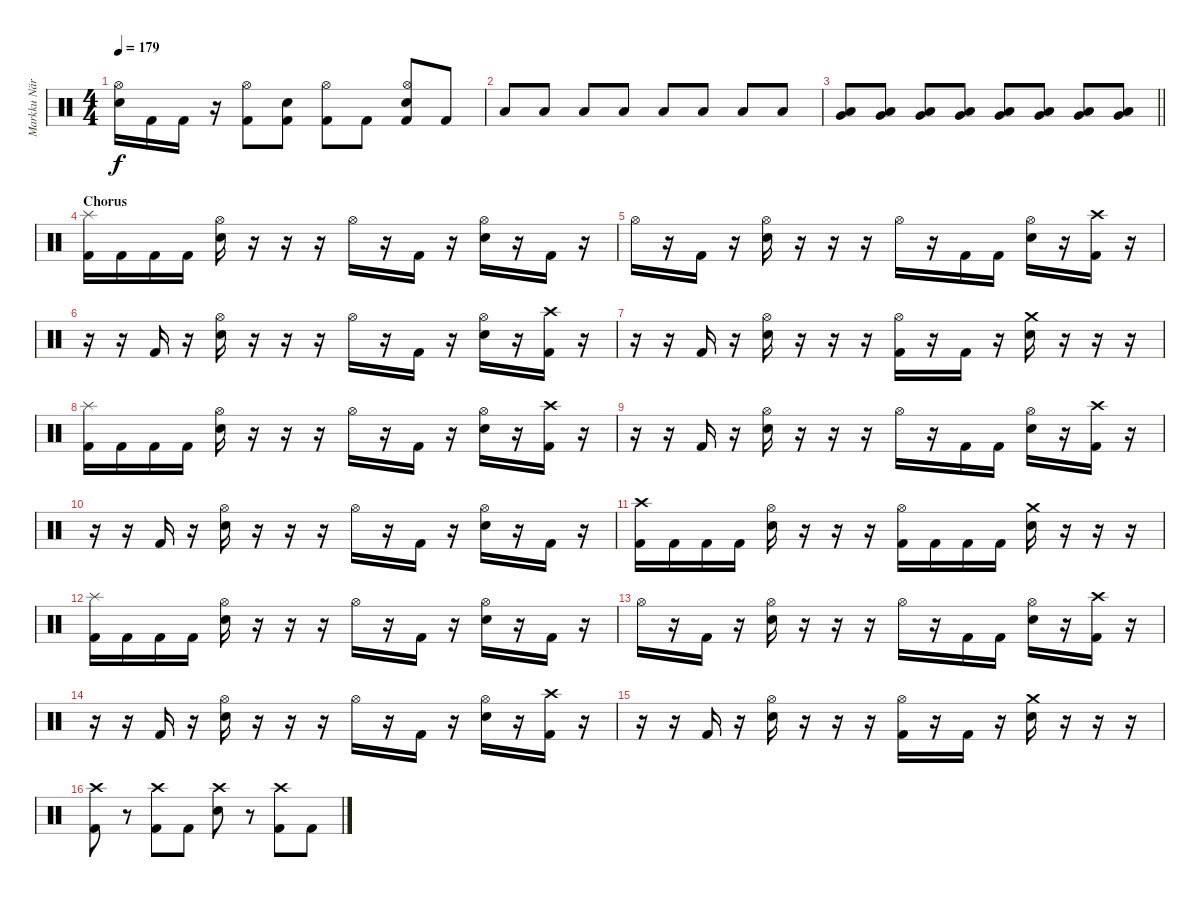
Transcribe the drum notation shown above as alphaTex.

\track ("Markku Näreneva (Drums)" "Markku När") {instrument percussion}
\staff {score}
\articulation defaults
\ts (4 4)
\tempo 179
\clef neutral
\ks c
("Snare (hit) 2" "Hi-Hat (open)").16{dy f} "Kick (hit) 2".16 "Kick (hit) 2".16 r.16 ("Kick (hit) 2" "Hi-Hat (open)").8 ("Kick (hit) 2" "Snare (hit) 2").8 ("Kick (hit) 2" "Hi-Hat (open)").8 "Kick (hit) 2".8 ("Kick (hit) 2" "Snare (hit) 2" "Hi-Hat (open)").8 "Kick (hit) 2".8 |
"Low Tom (hit)".8 "Low Tom (hit)".8 "Low Tom (hit)".8 "Low Tom (hit)".8 "Low Tom (hit)".8 "Low Tom (hit)".8 "Low Tom (hit)".8 "Low Tom (hit)".8 |
\barLineRight lightlight
("Low Tom (hit)" "Very Low Tom (hit)").8 ("Low Tom (hit)" "Very Low Tom (hit)").8 ("Low Tom (hit)" "Very Low Tom (hit)").8 ("Low Tom (hit)" "Very Low Tom (hit)").8 ("Low Tom (hit)" "Very Low Tom (hit)").8 ("Low Tom (hit)" "Very Low Tom (hit)").8 ("Low Tom (hit)" "Very Low Tom (hit)").8 ("Low Tom (hit)" "Very Low Tom (hit)").8 |
\section ("" "Chorus")
("Kick (hit) 2" "Splash (hit)").16 "Kick (hit) 2".16 "Kick (hit) 2".16 "Kick (hit) 2".16 ("Snare (hit) 2" "Hi-Hat (open)").16 r.16 r.16 r.16 "Hi-Hat (open)".16 r.16 "Kick (hit) 2".16 r.16 ("Snare (hit) 2" "Hi-Hat (open)").16 r.16 "Kick (hit) 2".16 r.16 |
"Hi-Hat (open)".16 r.16 "Kick (hit) 2".16 r.16 ("Snare (hit) 2" "Hi-Hat (open)").16 r.16 r.16 r.16 "Hi-Hat (open)".16 r.16 "Kick (hit) 2".16 "Kick (hit) 2".16 ("Snare (hit) 2" "Hi-Hat (open)").16 r.16 ("Kick (hit) 2" "Crash high (hit)").16 r.16 |
r.16 r.16 "Kick (hit) 2".16 r.16 ("Snare (hit) 2" "Hi-Hat (open)").16 r.16 r.16 r.16 "Hi-Hat (open)".16 r.16 "Kick (hit) 2".16 r.16 ("Snare (hit) 2" "Hi-Hat (open)").16 r.16 ("Kick (hit) 2" "Crash high (hit)").16 r.16 |
r.16 r.16 "Kick (hit) 2".16 r.16 ("Snare (hit) 2" "Hi-Hat (open)").16 r.16 r.16 r.16 ("Kick (hit) 2" "Hi-Hat (open)").16 r.16 "Kick (hit) 2".16 r.16 ("Snare (hit) 2" "Crash medium (hit)").16 r.16 r.16 r.16 |
("Kick (hit) 2" "Splash (hit)").16 "Kick (hit) 2".16 "Kick (hit) 2".16 "Kick (hit) 2".16 ("Snare (hit) 2" "Hi-Hat (open)").16 r.16 r.16 r.16 "Hi-Hat (open)".16 r.16 "Kick (hit) 2".16 r.16 ("Snare (hit) 2" "Hi-Hat (open)").16 r.16 ("Kick (hit) 2" "Crash high (hit)").16 r.16 |
r.16 r.16 "Kick (hit) 2".16 r.16 ("Snare (hit) 2" "Hi-Hat (open)").16 r.16 r.16 r.16 "Hi-Hat (open)".16 r.16 "Kick (hit) 2".16 "Kick (hit) 2".16 ("Snare (hit) 2" "Hi-Hat (open)").16 r.16 ("Kick (hit) 2" "Crash high (hit)").16 r.16 |
r.16 r.16 "Kick (hit) 2".16 r.16 ("Snare (hit) 2" "Hi-Hat (open)").16 r.16 r.16 r.16 "Hi-Hat (open)".16 r.16 "Kick (hit) 2".16 r.16 ("Snare (hit) 2" "Hi-Hat (open)").16 r.16 "Kick (hit) 2".16 r.16 |
("Kick (hit) 2" "Crash high (hit)").16 "Kick (hit) 2".16 "Kick (hit) 2".16 "Kick (hit) 2".16 ("Snare (hit) 2" "Hi-Hat (open)").16 r.16 r.16 r.16 ("Kick (hit) 2" "Hi-Hat (open)").16 "Kick (hit) 2".16 "Kick (hit) 2".16 "Kick (hit) 2".16 ("Snare (hit) 2" "Crash medium (hit)").16 r.16 r.16 r.16 |
("Kick (hit) 2" "Splash (hit)").16 "Kick (hit) 2".16 "Kick (hit) 2".16 "Kick (hit) 2".16 ("Snare (hit) 2" "Hi-Hat (open)").16 r.16 r.16 r.16 "Hi-Hat (open)".16 r.16 "Kick (hit) 2".16 r.16 ("Snare (hit) 2" "Hi-Hat (open)").16 r.16 "Kick (hit) 2".16 r.16 |
"Hi-Hat (open)".16 r.16 "Kick (hit) 2".16 r.16 ("Snare (hit) 2" "Hi-Hat (open)").16 r.16 r.16 r.16 "Hi-Hat (open)".16 r.16 "Kick (hit) 2".16 "Kick (hit) 2".16 ("Snare (hit) 2" "Hi-Hat (open)").16 r.16 ("Kick (hit) 2" "Crash high (hit)").16 r.16 |
r.16 r.16 "Kick (hit) 2".16 r.16 ("Snare (hit) 2" "Hi-Hat (open)").16 r.16 r.16 r.16 "Hi-Hat (open)".16 r.16 "Kick (hit) 2".16 r.16 ("Snare (hit) 2" "Hi-Hat (open)").16 r.16 ("Kick (hit) 2" "Crash high (hit)").16 r.16 |
r.16 r.16 "Kick (hit) 2".16 r.16 ("Snare (hit) 2" "Hi-Hat (open)").16 r.16 r.16 r.16 ("Kick (hit) 2" "Hi-Hat (open)").16 r.16 "Kick (hit) 2".16 r.16 ("Snare (hit) 2" "Crash medium (hit)").16 r.16 r.16 r.16 |
("Kick (hit) 2" "Crash high (hit)").8 r.8 ("Kick (hit) 2" "Crash high (hit)").8 "Kick (hit) 2".8 ("Snare (hit) 2" "Crash high (hit)").8 r.8 ("Kick (hit) 2" "Crash high (hit)").8 "Kick (hit) 2".8
